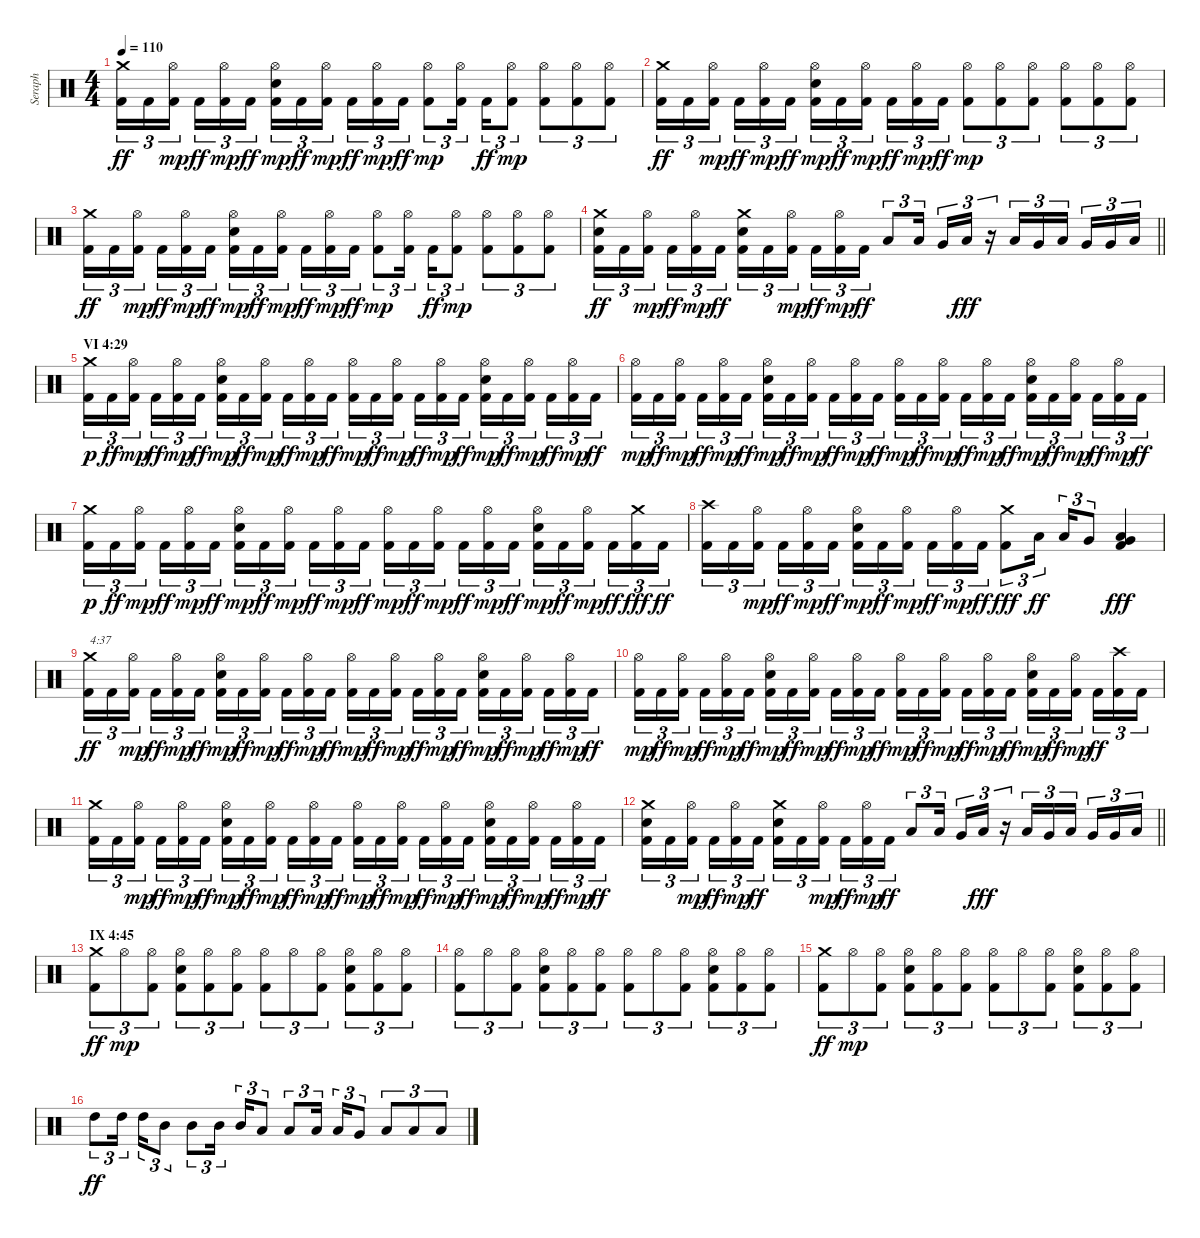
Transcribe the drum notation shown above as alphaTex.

\track ("Seraph" "Seraph") {instrument percussion}
\staff {score}
\articulation defaults
\ts (4 4)
\tempo 110
\clef neutral
\ks c
("Kick (hit) 2" "Crash medium (hit)").16{tu (3 2) dy ff} "Kick (hit) 2".16{tu (3 2)} ("Kick (hit) 2" "Hi-Hat (open)").16{tu (3 2) dy mp beam splitsecondary} "Kick (hit) 2".16{tu (3 2) dy ff} ("Kick (hit) 2" "Hi-Hat (open)").16{tu (3 2) dy mp} "Kick (hit) 2".16{tu (3 2) dy ff} ("Kick (hit) 2" "Electric Snare (hit)" "Hi-Hat (open)").16{tu (3 2) dy mp} "Kick (hit) 2".16{tu (3 2) dy ff} ("Kick (hit) 2" "Hi-Hat (open)").16{tu (3 2) dy mp beam splitsecondary} "Kick (hit) 2".16{tu (3 2) dy ff} ("Kick (hit) 2" "Hi-Hat (open)").16{tu (3 2) dy mp} "Kick (hit) 2".16{tu (3 2) dy ff} ("Kick (hit) 2" "Hi-Hat (open)").8{tu (3 2) dy mp} ("Kick (hit) 2" "Hi-Hat (open)").16{tu (3 2) beam splitsecondary} "Kick (hit) 2".16{tu (3 2) dy ff} ("Kick (hit) 2" "Hi-Hat (open)").8{tu (3 2) dy mp} ("Kick (hit) 2" "Hi-Hat (open)").8{tu (3 2)} ("Kick (hit) 2" "Hi-Hat (open)").8{tu (3 2)} ("Kick (hit) 2" "Hi-Hat (open)").8{tu (3 2)} |
("Kick (hit) 2" "Crash medium (hit)").16{tu (3 2) dy ff} "Kick (hit) 2".16{tu (3 2)} ("Kick (hit) 2" "Hi-Hat (open)").16{tu (3 2) dy mp beam splitsecondary} "Kick (hit) 2".16{tu (3 2) dy ff} ("Kick (hit) 2" "Hi-Hat (open)").16{tu (3 2) dy mp} "Kick (hit) 2".16{tu (3 2) dy ff} ("Kick (hit) 2" "Electric Snare (hit)" "Hi-Hat (open)").16{tu (3 2) dy mp} "Kick (hit) 2".16{tu (3 2) dy ff} ("Kick (hit) 2" "Hi-Hat (open)").16{tu (3 2) dy mp beam splitsecondary} "Kick (hit) 2".16{tu (3 2) dy ff} ("Kick (hit) 2" "Hi-Hat (open)").16{tu (3 2) dy mp} "Kick (hit) 2".16{tu (3 2) dy ff} ("Kick (hit) 2" "Hi-Hat (open)").8{tu (3 2) dy mp} ("Kick (hit) 2" "Hi-Hat (open)").8{tu (3 2)} ("Kick (hit) 2" "Hi-Hat (open)").8{tu (3 2)} ("Kick (hit) 2" "Hi-Hat (open)").8{tu (3 2)} ("Kick (hit) 2" "Hi-Hat (open)").8{tu (3 2)} ("Kick (hit) 2" "Hi-Hat (open)").8{tu (3 2)} |
("Kick (hit) 2" "Crash medium (hit)").16{tu (3 2) dy ff} "Kick (hit) 2".16{tu (3 2)} ("Kick (hit) 2" "Hi-Hat (open)").16{tu (3 2) dy mp beam splitsecondary} "Kick (hit) 2".16{tu (3 2) dy ff} ("Kick (hit) 2" "Hi-Hat (open)").16{tu (3 2) dy mp} "Kick (hit) 2".16{tu (3 2) dy ff} ("Kick (hit) 2" "Electric Snare (hit)" "Hi-Hat (open)").16{tu (3 2) dy mp} "Kick (hit) 2".16{tu (3 2) dy ff} ("Kick (hit) 2" "Hi-Hat (open)").16{tu (3 2) dy mp beam splitsecondary} "Kick (hit) 2".16{tu (3 2) dy ff} ("Kick (hit) 2" "Hi-Hat (open)").16{tu (3 2) dy mp} "Kick (hit) 2".16{tu (3 2) dy ff} ("Kick (hit) 2" "Hi-Hat (open)").8{tu (3 2) dy mp} ("Kick (hit) 2" "Hi-Hat (open)").16{tu (3 2) beam splitsecondary} "Kick (hit) 2".16{tu (3 2) dy ff} ("Kick (hit) 2" "Hi-Hat (open)").8{tu (3 2) dy mp} ("Kick (hit) 2" "Hi-Hat (open)").8{tu (3 2)} ("Kick (hit) 2" "Hi-Hat (open)").8{tu (3 2)} ("Kick (hit) 2" "Hi-Hat (open)").8{tu (3 2)} |
\barLineRight lightlight
("Kick (hit) 2" "Electric Snare (hit)" "Crash medium (hit)").16{tu (3 2) dy ff} "Kick (hit) 2".16{tu (3 2)} ("Kick (hit) 2" "Hi-Hat (open)").16{tu (3 2) dy mp beam splitsecondary} "Kick (hit) 2".16{tu (3 2) dy ff} ("Kick (hit) 2" "Hi-Hat (open)").16{tu (3 2) dy mp} "Kick (hit) 2".16{tu (3 2) dy ff} ("Kick (hit) 2" "Electric Snare (hit)" "Crash medium (hit)").16{tu (3 2)} "Kick (hit) 2".16{tu (3 2)} ("Kick (hit) 2" "Hi-Hat (open)").16{tu (3 2) dy mp beam splitsecondary} "Kick (hit) 2".16{tu (3 2) dy ff} ("Kick (hit) 2" "Hi-Hat (open)").16{tu (3 2) dy mp} "Kick (hit) 2".16{tu (3 2) dy ff} "Low Tom (hit)".8{tu (3 2)} "Low Tom (hit)".16{tu (3 2) beam splitsecondary} "Very Low Tom (hit)".16{tu (3 2)} "Low Tom (hit)".16{tu (3 2) dy fff} r.16{tu (3 2)} "Low Tom (hit)".16{tu (3 2)} "Very Low Tom (hit)".16{tu (3 2)} "Low Tom (hit)".16{tu (3 2) beam splitsecondary} "Very Low Tom (hit)".16{tu (3 2)} "Very Low Tom (hit)".16{tu (3 2)} "Low Floor Tom (hit)".16{tu (3 2)} |
\section ("" "VI 4:29")
("Kick (hit) 2" "Crash medium (hit)").16{tu (3 2) dy p} "Kick (hit) 2".16{tu (3 2) dy ff} ("Kick (hit) 2" "Hi-Hat (open)").16{tu (3 2) dy mp beam splitsecondary} "Kick (hit) 2".16{tu (3 2) dy ff} ("Kick (hit) 2" "Hi-Hat (open)").16{tu (3 2) dy mp} "Kick (hit) 2".16{tu (3 2) dy ff} ("Kick (hit) 2" "Electric Snare (hit)" "Hi-Hat (open)").16{tu (3 2) dy mp} "Kick (hit) 2".16{tu (3 2) dy ff} ("Kick (hit) 2" "Hi-Hat (open)").16{tu (3 2) dy mp beam splitsecondary} "Kick (hit) 2".16{tu (3 2) dy ff} ("Kick (hit) 2" "Hi-Hat (open)").16{tu (3 2) dy mp} "Kick (hit) 2".16{tu (3 2) dy ff} ("Kick (hit) 2" "Hi-Hat (open)").16{tu (3 2) dy mp} "Kick (hit) 2".16{tu (3 2) dy ff} ("Kick (hit) 2" "Hi-Hat (open)").16{tu (3 2) dy mp beam splitsecondary} "Kick (hit) 2".16{tu (3 2) dy ff} ("Kick (hit) 2" "Hi-Hat (open)").16{tu (3 2) dy mp} "Kick (hit) 2".16{tu (3 2) dy ff} ("Kick (hit) 2" "Electric Snare (hit)" "Hi-Hat (open)").16{tu (3 2) dy mp} "Kick (hit) 2".16{tu (3 2) dy ff} ("Kick (hit) 2" "Hi-Hat (open)").16{tu (3 2) dy mp beam splitsecondary} "Kick (hit) 2".16{tu (3 2) dy ff} ("Kick (hit) 2" "Hi-Hat (open)").16{tu (3 2) dy mp} "Kick (hit) 2".16{tu (3 2) dy ff} |
("Kick (hit) 2" "Hi-Hat (open)").16{tu (3 2) dy mp} "Kick (hit) 2".16{tu (3 2) dy ff} ("Kick (hit) 2" "Hi-Hat (open)").16{tu (3 2) dy mp beam splitsecondary} "Kick (hit) 2".16{tu (3 2) dy ff} ("Kick (hit) 2" "Hi-Hat (open)").16{tu (3 2) dy mp} "Kick (hit) 2".16{tu (3 2) dy ff} ("Kick (hit) 2" "Electric Snare (hit)" "Hi-Hat (open)").16{tu (3 2) dy mp} "Kick (hit) 2".16{tu (3 2) dy ff} ("Kick (hit) 2" "Hi-Hat (open)").16{tu (3 2) dy mp beam splitsecondary} "Kick (hit) 2".16{tu (3 2) dy ff} ("Kick (hit) 2" "Hi-Hat (open)").16{tu (3 2) dy mp} "Kick (hit) 2".16{tu (3 2) dy ff} ("Kick (hit) 2" "Hi-Hat (open)").16{tu (3 2) dy mp} "Kick (hit) 2".16{tu (3 2) dy ff} ("Kick (hit) 2" "Hi-Hat (open)").16{tu (3 2) dy mp beam splitsecondary} "Kick (hit) 2".16{tu (3 2) dy ff} ("Kick (hit) 2" "Hi-Hat (open)").16{tu (3 2) dy mp} "Kick (hit) 2".16{tu (3 2) dy ff} ("Kick (hit) 2" "Electric Snare (hit)" "Hi-Hat (open)").16{tu (3 2) dy mp} "Kick (hit) 2".16{tu (3 2) dy ff} ("Kick (hit) 2" "Hi-Hat (open)").16{tu (3 2) dy mp beam splitsecondary} "Kick (hit) 2".16{tu (3 2) dy ff} ("Kick (hit) 2" "Hi-Hat (open)").16{tu (3 2) dy mp} "Kick (hit) 2".16{tu (3 2) dy ff} |
("Kick (hit) 2" "Crash medium (hit)").16{tu (3 2) dy p} "Kick (hit) 2".16{tu (3 2) dy ff} ("Kick (hit) 2" "Hi-Hat (open)").16{tu (3 2) dy mp beam splitsecondary} "Kick (hit) 2".16{tu (3 2) dy ff} ("Kick (hit) 2" "Hi-Hat (open)").16{tu (3 2) dy mp} "Kick (hit) 2".16{tu (3 2) dy ff} ("Kick (hit) 2" "Electric Snare (hit)" "Hi-Hat (open)").16{tu (3 2) dy mp} "Kick (hit) 2".16{tu (3 2) dy ff} ("Kick (hit) 2" "Hi-Hat (open)").16{tu (3 2) dy mp beam splitsecondary} "Kick (hit) 2".16{tu (3 2) dy ff} ("Kick (hit) 2" "Hi-Hat (open)").16{tu (3 2) dy mp} "Kick (hit) 2".16{tu (3 2) dy ff} ("Kick (hit) 2" "Hi-Hat (open)").16{tu (3 2) dy mp} "Kick (hit) 2".16{tu (3 2) dy ff} ("Kick (hit) 2" "Hi-Hat (open)").16{tu (3 2) dy mp beam splitsecondary} "Kick (hit) 2".16{tu (3 2) dy ff} ("Kick (hit) 2" "Hi-Hat (open)").16{tu (3 2) dy mp} "Kick (hit) 2".16{tu (3 2) dy ff} ("Kick (hit) 2" "Electric Snare (hit)" "Hi-Hat (open)").16{tu (3 2) dy mp} "Kick (hit) 2".16{tu (3 2) dy ff} ("Kick (hit) 2" "Hi-Hat (open)").16{tu (3 2) dy mp beam splitsecondary} "Kick (hit) 2".16{tu (3 2) dy ff} ("Kick (hit) 2" "Crash medium (hit)").16{tu (3 2) dy fff} "Kick (hit) 2".16{tu (3 2) dy ff} |
("Kick (hit) 2" "Crash high (hit)").16{tu (3 2)} "Kick (hit) 2".16{tu (3 2)} ("Kick (hit) 2" "Hi-Hat (open)").16{tu (3 2) dy mp beam splitsecondary} "Kick (hit) 2".16{tu (3 2) dy ff} ("Kick (hit) 2" "Hi-Hat (open)").16{tu (3 2) dy mp} "Kick (hit) 2".16{tu (3 2) dy ff} ("Kick (hit) 2" "Electric Snare (hit)" "Hi-Hat (open)").16{tu (3 2) dy mp} "Kick (hit) 2".16{tu (3 2) dy ff} ("Kick (hit) 2" "Hi-Hat (open)").16{tu (3 2) dy mp beam splitsecondary} "Kick (hit) 2".16{tu (3 2) dy ff} ("Kick (hit) 2" "Hi-Hat (open)").16{tu (3 2) dy mp} "Kick (hit) 2".16{tu (3 2) dy ff} ("Kick (hit) 2" "Crash medium (hit)").8{tu (3 2) dy fff} "Low Tom (hit)".16{tu (3 2) dy ff beam splitsecondary} "Low Tom (hit)".16{tu (3 2)} "Very Low Tom (hit)".8{tu (3 2)} ("Kick (hit) 2" "Very Low Tom (hit)" "Low Floor Tom (hit)").4{dy fff} |
("Kick (hit) 2" "Crash medium (hit)").16{tu (3 2) txt "4:37" dy ff} "Kick (hit) 2".16{tu (3 2)} ("Kick (hit) 2" "Hi-Hat (open)").16{tu (3 2) dy mp beam splitsecondary} "Kick (hit) 2".16{tu (3 2) dy ff} ("Kick (hit) 2" "Hi-Hat (open)").16{tu (3 2) dy mp} "Kick (hit) 2".16{tu (3 2) dy ff} ("Kick (hit) 2" "Electric Snare (hit)" "Hi-Hat (open)").16{tu (3 2) dy mp} "Kick (hit) 2".16{tu (3 2) dy ff} ("Kick (hit) 2" "Hi-Hat (open)").16{tu (3 2) dy mp beam splitsecondary} "Kick (hit) 2".16{tu (3 2) dy ff} ("Kick (hit) 2" "Hi-Hat (open)").16{tu (3 2) dy mp} "Kick (hit) 2".16{tu (3 2) dy ff} ("Kick (hit) 2" "Hi-Hat (open)").16{tu (3 2) dy mp} "Kick (hit) 2".16{tu (3 2) dy ff} ("Kick (hit) 2" "Hi-Hat (open)").16{tu (3 2) dy mp beam splitsecondary} "Kick (hit) 2".16{tu (3 2) dy ff} ("Kick (hit) 2" "Hi-Hat (open)").16{tu (3 2) dy mp} "Kick (hit) 2".16{tu (3 2) dy ff} ("Kick (hit) 2" "Electric Snare (hit)" "Hi-Hat (open)").16{tu (3 2) dy mp} "Kick (hit) 2".16{tu (3 2) dy ff} ("Kick (hit) 2" "Hi-Hat (open)").16{tu (3 2) dy mp beam splitsecondary} "Kick (hit) 2".16{tu (3 2) dy ff} ("Kick (hit) 2" "Hi-Hat (open)").16{tu (3 2) dy mp} "Kick (hit) 2".16{tu (3 2) dy ff} |
("Kick (hit) 2" "Hi-Hat (open)").16{tu (3 2) dy mp} "Kick (hit) 2".16{tu (3 2) dy ff} ("Kick (hit) 2" "Hi-Hat (open)").16{tu (3 2) dy mp beam splitsecondary} "Kick (hit) 2".16{tu (3 2) dy ff} ("Kick (hit) 2" "Hi-Hat (open)").16{tu (3 2) dy mp} "Kick (hit) 2".16{tu (3 2) dy ff} ("Kick (hit) 2" "Electric Snare (hit)" "Hi-Hat (open)").16{tu (3 2) dy mp} "Kick (hit) 2".16{tu (3 2) dy ff} ("Kick (hit) 2" "Hi-Hat (open)").16{tu (3 2) dy mp beam splitsecondary} "Kick (hit) 2".16{tu (3 2) dy ff} ("Kick (hit) 2" "Hi-Hat (open)").16{tu (3 2) dy mp} "Kick (hit) 2".16{tu (3 2) dy ff} ("Kick (hit) 2" "Hi-Hat (open)").16{tu (3 2) dy mp} "Kick (hit) 2".16{tu (3 2) dy ff} ("Kick (hit) 2" "Hi-Hat (open)").16{tu (3 2) dy mp beam splitsecondary} "Kick (hit) 2".16{tu (3 2) dy ff} ("Kick (hit) 2" "Hi-Hat (open)").16{tu (3 2) dy mp} "Kick (hit) 2".16{tu (3 2) dy ff} ("Kick (hit) 2" "Electric Snare (hit)" "Hi-Hat (open)").16{tu (3 2) dy mp} "Kick (hit) 2".16{tu (3 2) dy ff} ("Kick (hit) 2" "Hi-Hat (open)").16{tu (3 2) dy mp beam splitsecondary} "Kick (hit) 2".16{tu (3 2) dy ff} ("Kick (hit) 2" "Crash high (hit)").16{tu (3 2)} "Kick (hit) 2".16{tu (3 2)} |
("Kick (hit) 2" "Crash medium (hit)").16{tu (3 2)} "Kick (hit) 2".16{tu (3 2)} ("Kick (hit) 2" "Hi-Hat (open)").16{tu (3 2) dy mp beam splitsecondary} "Kick (hit) 2".16{tu (3 2) dy ff} ("Kick (hit) 2" "Hi-Hat (open)").16{tu (3 2) dy mp} "Kick (hit) 2".16{tu (3 2) dy ff} ("Kick (hit) 2" "Electric Snare (hit)" "Hi-Hat (open)").16{tu (3 2) dy mp} "Kick (hit) 2".16{tu (3 2) dy ff} ("Kick (hit) 2" "Hi-Hat (open)").16{tu (3 2) dy mp beam splitsecondary} "Kick (hit) 2".16{tu (3 2) dy ff} ("Kick (hit) 2" "Hi-Hat (open)").16{tu (3 2) dy mp} "Kick (hit) 2".16{tu (3 2) dy ff} ("Kick (hit) 2" "Hi-Hat (open)").16{tu (3 2) dy mp} "Kick (hit) 2".16{tu (3 2) dy ff} ("Kick (hit) 2" "Hi-Hat (open)").16{tu (3 2) dy mp beam splitsecondary} "Kick (hit) 2".16{tu (3 2) dy ff} ("Kick (hit) 2" "Hi-Hat (open)").16{tu (3 2) dy mp} "Kick (hit) 2".16{tu (3 2) dy ff} ("Kick (hit) 2" "Electric Snare (hit)" "Hi-Hat (open)").16{tu (3 2) dy mp} "Kick (hit) 2".16{tu (3 2) dy ff} ("Kick (hit) 2" "Hi-Hat (open)").16{tu (3 2) dy mp beam splitsecondary} "Kick (hit) 2".16{tu (3 2) dy ff} ("Kick (hit) 2" "Hi-Hat (open)").16{tu (3 2) dy mp} "Kick (hit) 2".16{tu (3 2) dy ff} |
\barLineRight lightlight
("Kick (hit) 2" "Electric Snare (hit)" "Crash medium (hit)").16{tu (3 2)} "Kick (hit) 2".16{tu (3 2)} ("Kick (hit) 2" "Hi-Hat (open)").16{tu (3 2) dy mp beam splitsecondary} "Kick (hit) 2".16{tu (3 2) dy ff} ("Kick (hit) 2" "Hi-Hat (open)").16{tu (3 2) dy mp} "Kick (hit) 2".16{tu (3 2) dy ff} ("Kick (hit) 2" "Electric Snare (hit)" "Crash medium (hit)").16{tu (3 2)} "Kick (hit) 2".16{tu (3 2)} ("Kick (hit) 2" "Hi-Hat (open)").16{tu (3 2) dy mp beam splitsecondary} "Kick (hit) 2".16{tu (3 2) dy ff} ("Kick (hit) 2" "Hi-Hat (open)").16{tu (3 2) dy mp} "Kick (hit) 2".16{tu (3 2) dy ff} "Low Tom (hit)".8{tu (3 2)} "Low Tom (hit)".16{tu (3 2) beam splitsecondary} "Very Low Tom (hit)".16{tu (3 2)} "Low Tom (hit)".16{tu (3 2) dy fff} r.16{tu (3 2)} "Low Tom (hit)".16{tu (3 2)} "Very Low Tom (hit)".16{tu (3 2)} "Low Tom (hit)".16{tu (3 2) beam splitsecondary} "Very Low Tom (hit)".16{tu (3 2)} "Very Low Tom (hit)".16{tu (3 2)} "Low Floor Tom (hit)".16{tu (3 2)} |
\section ("" "IX 4:45")
("Kick (hit) 2" "Crash medium (hit)").8{tu (3 2) dy ff} "Hi-Hat (open)".8{tu (3 2) dy mp} ("Kick (hit) 2" "Hi-Hat (open)").8{tu (3 2)} ("Kick (hit) 2" "Electric Snare (hit)" "Hi-Hat (open)").8{tu (3 2)} ("Kick (hit) 2" "Hi-Hat (open)").8{tu (3 2)} ("Kick (hit) 2" "Hi-Hat (open)").8{tu (3 2)} ("Kick (hit) 2" "Hi-Hat (open)").8{tu (3 2)} "Hi-Hat (open)".8{tu (3 2)} ("Kick (hit) 2" "Hi-Hat (open)").8{tu (3 2)} ("Kick (hit) 2" "Electric Snare (hit)" "Hi-Hat (open)").8{tu (3 2)} ("Kick (hit) 2" "Hi-Hat (open)").8{tu (3 2)} ("Kick (hit) 2" "Hi-Hat (open)").8{tu (3 2)} |
("Kick (hit) 2" "Hi-Hat (open)").8{tu (3 2)} "Hi-Hat (open)".8{tu (3 2)} ("Kick (hit) 2" "Hi-Hat (open)").8{tu (3 2)} ("Kick (hit) 2" "Electric Snare (hit)" "Hi-Hat (open)").8{tu (3 2)} ("Kick (hit) 2" "Hi-Hat (open)").8{tu (3 2)} ("Kick (hit) 2" "Hi-Hat (open)").8{tu (3 2)} ("Kick (hit) 2" "Hi-Hat (open)").8{tu (3 2)} "Hi-Hat (open)".8{tu (3 2)} ("Kick (hit) 2" "Hi-Hat (open)").8{tu (3 2)} ("Kick (hit) 2" "Electric Snare (hit)" "Hi-Hat (open)").8{tu (3 2)} ("Kick (hit) 2" "Hi-Hat (open)").8{tu (3 2)} ("Kick (hit) 2" "Hi-Hat (open)").8{tu (3 2)} |
("Kick (hit) 2" "Crash medium (hit)").8{tu (3 2) dy ff} "Hi-Hat (open)".8{tu (3 2) dy mp} ("Kick (hit) 2" "Hi-Hat (open)").8{tu (3 2)} ("Kick (hit) 2" "Electric Snare (hit)" "Hi-Hat (open)").8{tu (3 2)} ("Kick (hit) 2" "Hi-Hat (open)").8{tu (3 2)} ("Kick (hit) 2" "Hi-Hat (open)").8{tu (3 2)} ("Kick (hit) 2" "Hi-Hat (open)").8{tu (3 2)} "Hi-Hat (open)".8{tu (3 2)} ("Kick (hit) 2" "Hi-Hat (open)").8{tu (3 2)} ("Kick (hit) 2" "Electric Snare (hit)" "Hi-Hat (open)").8{tu (3 2)} ("Kick (hit) 2" "Hi-Hat (open)").8{tu (3 2)} ("Kick (hit) 2" "Hi-Hat (open)").8{tu (3 2)} |
"High Tom (hit)".8{tu (3 2) dy ff} "High Tom (hit)".16{tu (3 2) beam splitsecondary} "High Tom (hit)".16{tu (3 2)} "Mid Tom (hit)".8{tu (3 2)} "Mid Tom (hit)".8{tu (3 2)} "Mid Tom (hit)".16{tu (3 2) beam splitsecondary} "Mid Tom (hit)".16{tu (3 2)} "Low Tom (hit)".8{tu (3 2)} "Low Tom (hit)".8{tu (3 2)} "Low Tom (hit)".16{tu (3 2) beam splitsecondary} "Low Tom (hit)".16{tu (3 2)} "Very Low Tom (hit)".8{tu (3 2)} "Low Floor Tom (hit)".8{tu (3 2)} "Low Floor Tom (hit)".8{tu (3 2)} "Low Floor Tom (hit)".8{tu (3 2)}
